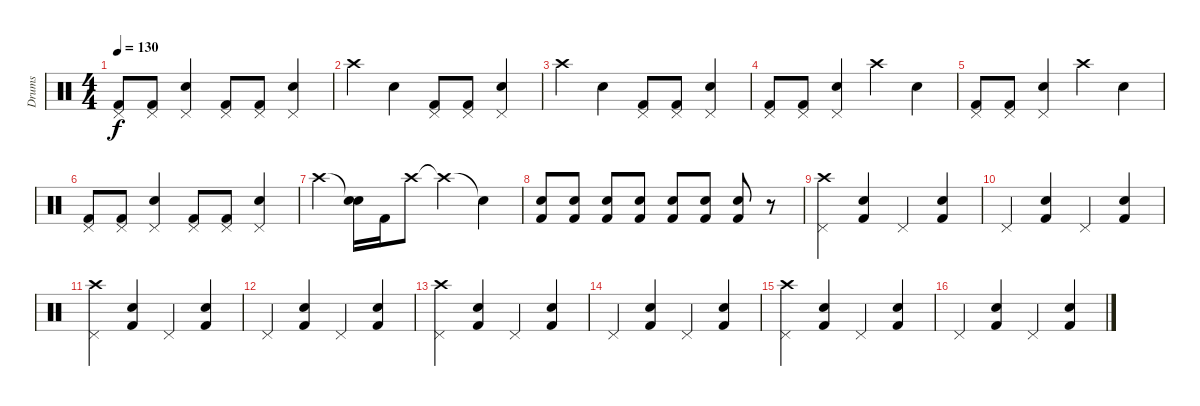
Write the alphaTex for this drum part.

\track ("Drums" "Drums") {instrument percussion}
\staff {score}
\articulation defaults
\ts (4 4)
\tempo 130
\clef neutral
\ks c
("Pedal Hi-Hat (hit)" "Kick (hit) 2").8{dy f} ("Pedal Hi-Hat (hit)" "Kick (hit) 2").8 ("Pedal Hi-Hat (hit)" "Snare (hit) 2").4 ("Pedal Hi-Hat (hit)" "Kick (hit) 2").8 ("Pedal Hi-Hat (hit)" "Kick (hit) 2").8 ("Pedal Hi-Hat (hit)" "Snare (hit) 2").4 |
"Crash high (hit)".4 "Snare (hit) 2".4 ("Pedal Hi-Hat (hit)" "Kick (hit) 2").8 ("Pedal Hi-Hat (hit)" "Kick (hit) 2").8 ("Pedal Hi-Hat (hit)" "Snare (hit) 2").4 |
"Crash high (hit)".4 "Snare (hit) 2".4 ("Pedal Hi-Hat (hit)" "Kick (hit) 2").8 ("Pedal Hi-Hat (hit)" "Kick (hit) 2").8 ("Pedal Hi-Hat (hit)" "Snare (hit) 2").4 |
("Pedal Hi-Hat (hit)" "Kick (hit) 2").8 ("Pedal Hi-Hat (hit)" "Kick (hit) 2").8 ("Pedal Hi-Hat (hit)" "Snare (hit) 2").4 "Crash high (hit)".4 "Snare (hit) 2".4 |
("Pedal Hi-Hat (hit)" "Kick (hit) 2").8 ("Pedal Hi-Hat (hit)" "Kick (hit) 2").8 ("Pedal Hi-Hat (hit)" "Snare (hit) 2").4 "Crash high (hit)".4 "Snare (hit) 2".4 |
("Pedal Hi-Hat (hit)" "Kick (hit) 2").8 ("Pedal Hi-Hat (hit)" "Kick (hit) 2").8 ("Pedal Hi-Hat (hit)" "Snare (hit) 2").4 ("Pedal Hi-Hat (hit)" "Kick (hit) 2").8 ("Pedal Hi-Hat (hit)" "Kick (hit) 2").8 ("Pedal Hi-Hat (hit)" "Snare (hit) 2").4 |
"Crash high (hit)".4 ("Snare (hit)"{t} "Snare (hit) 2").16 "Kick (hit) 2".16 "Crash high (hit)".8 "Crash high (hit)"{t}.4 "Snare (hit)"{t}.4 |
("Snare (hit) 2" "Kick (hit) 2").8 ("Snare (hit) 2" "Kick (hit) 2").8 ("Snare (hit) 2" "Kick (hit) 2").8 ("Snare (hit) 2" "Kick (hit) 2").8 ("Snare (hit) 2" "Kick (hit) 2").8 ("Snare (hit) 2" "Kick (hit) 2").8 ("Snare (hit) 2" "Kick (hit) 2").8 r.8 |
("Crash high (hit)" "Pedal Hi-Hat (hit)").4 ("Snare (hit) 2" "Kick (hit) 2").4 "Pedal Hi-Hat (hit)".4 ("Snare (hit) 2" "Kick (hit) 2").4 |
"Pedal Hi-Hat (hit)".4 ("Snare (hit) 2" "Kick (hit) 2").4 "Pedal Hi-Hat (hit)".4 ("Snare (hit) 2" "Kick (hit) 2").4 |
("Crash high (hit)" "Pedal Hi-Hat (hit)").4 ("Snare (hit) 2" "Kick (hit) 2").4 "Pedal Hi-Hat (hit)".4 ("Snare (hit) 2" "Kick (hit) 2").4 |
"Pedal Hi-Hat (hit)".4 ("Snare (hit) 2" "Kick (hit) 2").4 "Pedal Hi-Hat (hit)".4 ("Snare (hit) 2" "Kick (hit) 2").4 |
("Crash high (hit)" "Pedal Hi-Hat (hit)").4 ("Snare (hit) 2" "Kick (hit) 2").4 "Pedal Hi-Hat (hit)".4 ("Snare (hit) 2" "Kick (hit) 2").4 |
"Pedal Hi-Hat (hit)".4 ("Snare (hit) 2" "Kick (hit) 2").4 "Pedal Hi-Hat (hit)".4 ("Snare (hit) 2" "Kick (hit) 2").4 |
("Crash high (hit)" "Pedal Hi-Hat (hit)").4 ("Snare (hit) 2" "Kick (hit) 2").4 "Pedal Hi-Hat (hit)".4 ("Snare (hit) 2" "Kick (hit) 2").4 |
"Pedal Hi-Hat (hit)".4 ("Snare (hit) 2" "Kick (hit) 2").4 "Pedal Hi-Hat (hit)".4 ("Snare (hit) 2" "Kick (hit) 2").4
